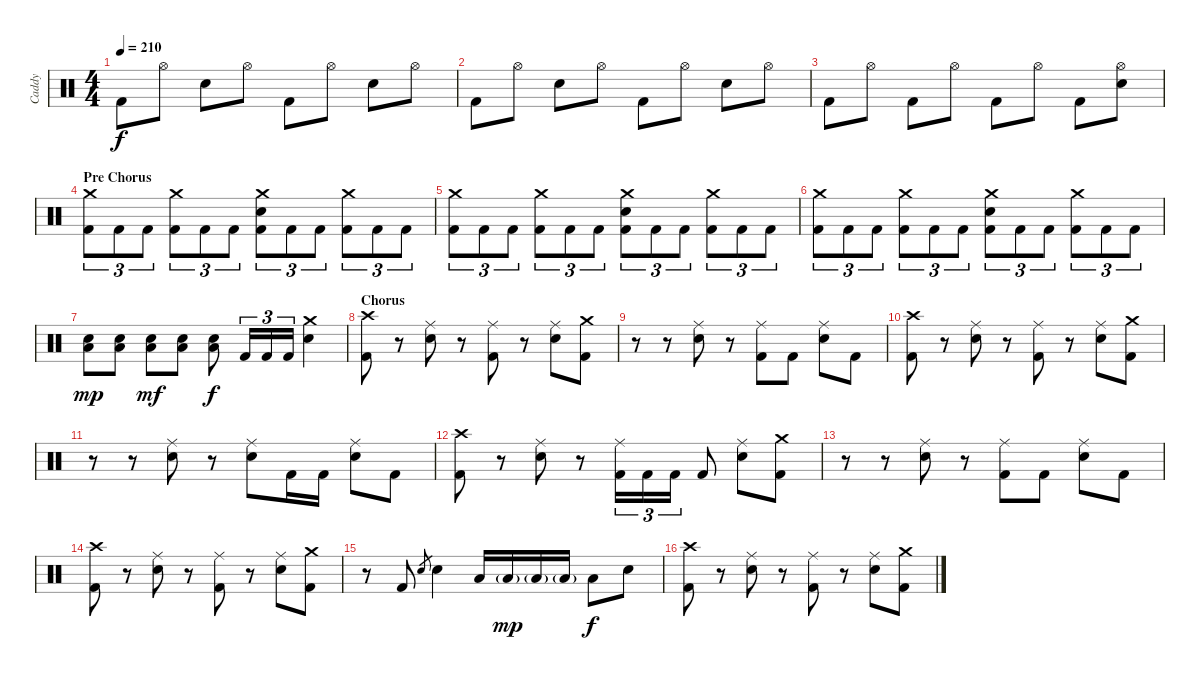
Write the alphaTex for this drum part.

\track ("Caddy" "Caddy") {instrument percussion}
\staff {score}
\articulation defaults
\ts (4 4)
\tempo 210
\clef neutral
\ks c "Kick (hit) 2".8{dy f} "Hi-Hat (open)".8 "Electric Snare (hit)".8 "Hi-Hat (open)".8 "Kick (hit) 2".8 "Hi-Hat (open)".8 "Electric Snare (hit)".8 "Hi-Hat (open)".8
|
"Kick (hit) 2".8 "Hi-Hat (open)".8 "Electric Snare (hit)".8 "Hi-Hat (open)".8 "Kick (hit) 2".8 "Hi-Hat (open)".8 "Electric Snare (hit)".8 "Hi-Hat (open)".8 |
"Kick (hit) 2".8 "Hi-Hat (open)".8 "Kick (hit) 2".8 "Hi-Hat (open)".8 "Kick (hit) 2".8 "Hi-Hat (open)".8 "Kick (hit) 2".8 ("Hi-Hat (open)" "Electric Snare (hit)").8 |
\section ("" "Pre Chorus")
("Crash medium (hit)" "Kick (hit) 2").8{tu (3 2)} "Kick (hit) 2".8{tu (3 2)} "Kick (hit) 2".8{tu (3 2)} ("Crash medium (hit)" "Kick (hit) 2").8{tu (3 2)} "Kick (hit) 2".8{tu (3 2)} "Kick (hit) 2".8{tu (3 2)} ("Crash medium (hit)" "Electric Snare (hit)" "Kick (hit) 2").8{tu (3 2)} "Kick (hit) 2".8{tu (3 2)} "Kick (hit) 2".8{tu (3 2)} ("Crash medium (hit)" "Kick (hit) 2").8{tu (3 2)} "Kick (hit) 2".8{tu (3 2)} "Kick (hit) 2".8{tu (3 2)} |
("Crash medium (hit)" "Kick (hit) 2").8{tu (3 2)} "Kick (hit) 2".8{tu (3 2)} "Kick (hit) 2".8{tu (3 2)} ("Crash medium (hit)" "Kick (hit) 2").8{tu (3 2)} "Kick (hit) 2".8{tu (3 2)} "Kick (hit) 2".8{tu (3 2)} ("Crash medium (hit)" "Electric Snare (hit)" "Kick (hit) 2").8{tu (3 2)} "Kick (hit) 2".8{tu (3 2)} "Kick (hit) 2".8{tu (3 2)} ("Crash medium (hit)" "Kick (hit) 2").8{tu (3 2)} "Kick (hit) 2".8{tu (3 2)} "Kick (hit) 2".8{tu (3 2)} |
("Crash medium (hit)" "Kick (hit) 2").8{tu (3 2)} "Kick (hit) 2".8{tu (3 2)} "Kick (hit) 2".8{tu (3 2)} ("Crash medium (hit)" "Kick (hit) 2").8{tu (3 2)} "Kick (hit) 2".8{tu (3 2)} "Kick (hit) 2".8{tu (3 2)} ("Crash medium (hit)" "Electric Snare (hit)" "Kick (hit) 2").8{tu (3 2)} "Kick (hit) 2".8{tu (3 2)} "Kick (hit) 2".8{tu (3 2)} ("Crash medium (hit)" "Kick (hit) 2").8{tu (3 2)} "Kick (hit) 2".8{tu (3 2)} "Kick (hit) 2".8{tu (3 2)} |
("Electric Snare (hit)" "Low Floor Tom (hit)").8{dy mp} ("Electric Snare (hit)" "Low Floor Tom (hit)").8 ("Electric Snare (hit)" "Low Floor Tom (hit)").8{dy mf} ("Electric Snare (hit)" "Low Floor Tom (hit)").8 ("Electric Snare (hit)" "Low Floor Tom (hit)").8{dy f} "Kick (hit) 2".16{tu (3 2)} "Kick (hit) 2".16{tu (3 2)} "Kick (hit) 2".16{tu (3 2)} ("Crash medium (hit)" "Electric Snare (hit)").4 |
\section ("" "Chorus")
("Crash high (hit)" "Kick (hit) 2").8 r.8 ("Ride (middle)" "Electric Snare (hit)").8 r.8 ("Ride (middle)" "Kick (hit) 2").8 r.8 ("Ride (middle)" "Electric Snare (hit)").8 ("Crash medium (hit)" "Kick (hit) 2").8 |
r.8 r.8 ("Ride (middle)" "Electric Snare (hit)").8 r.8 ("Ride (middle)" "Kick (hit) 2").8 "Kick (hit) 2".8 ("Ride (middle)" "Electric Snare (hit)").8 "Kick (hit) 2".8 |
("Crash high (hit)" "Kick (hit) 2").8 r.8 ("Ride (middle)" "Electric Snare (hit)").8 r.8 ("Ride (middle)" "Kick (hit) 2").8 r.8 ("Ride (middle)" "Electric Snare (hit)").8 ("Crash medium (hit)" "Kick (hit) 2").8 |
r.8 r.8 ("Ride (middle)" "Electric Snare (hit)").8 r.8 ("Ride (middle)" "Electric Snare (hit)").8 "Kick (hit) 2".16 "Kick (hit) 2".16 ("Ride (middle)" "Electric Snare (hit)").8 "Kick (hit) 2".8 |
("Crash high (hit)" "Kick (hit) 2").8 r.8 ("Ride (middle)" "Electric Snare (hit)").8 r.8 ("Ride (middle)" "Kick (hit) 2").16{tu (3 2)} "Kick (hit) 2".16{tu (3 2)} "Kick (hit) 2".16{tu (3 2)} "Kick (hit) 2".8 ("Ride (middle)" "Electric Snare (hit)").8 ("Crash medium (hit)" "Kick (hit) 2").8 |
r.8 r.8 ("Ride (middle)" "Electric Snare (hit)").8 r.8 ("Ride (middle)" "Kick (hit) 2").8 "Kick (hit) 2".8 ("Ride (middle)" "Electric Snare (hit)").8 "Kick (hit) 2".8 |
("Crash high (hit)" "Kick (hit) 2").8 r.8 ("Ride (middle)" "Electric Snare (hit)").8 r.8 ("Ride (middle)" "Kick (hit) 2").8 r.8 ("Ride (middle)" "Electric Snare (hit)").8 ("Crash medium (hit)" "Kick (hit) 2").8 |
r.8 "Kick (hit) 2".8 "Electric Snare (hit)".8{gr} "Electric Snare (hit)".4 "Low Tom (hit)".16 "Low Tom (hit)"{g}.16{dy mp} "Low Tom (hit)"{g}.16 "Low Tom (hit)"{g}.16 "Low Tom (hit)".8{dy f} "Electric Snare (hit)".8 |
("Crash high (hit)" "Kick (hit) 2").8 r.8 ("Ride (middle)" "Electric Snare (hit)").8 r.8 ("Ride (middle)" "Kick (hit) 2").8 r.8 ("Ride (middle)" "Electric Snare (hit)").8 ("Crash medium (hit)" "Kick (hit) 2").8
